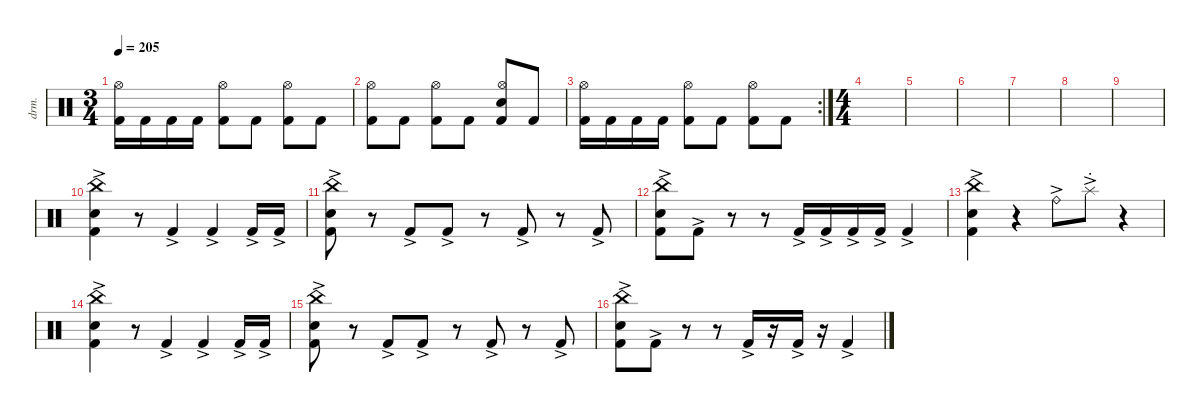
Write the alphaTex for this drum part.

\defaultSystemsLayout 4
\hideDynamics
\bracketExtendMode nobrackets
\otherSystemsTrackNameOrientation horizontal
\track ("Drumkit" "drm.") {instrument percussion}
\staff {score}
\articulation defaults
\ts (3 4)
\tempo 205
\clef neutral
\ks c
("Kick (hit) 2" "Hi-Hat (open)").16{dy mf} "Kick (hit) 2".16 "Kick (hit) 2".16 "Kick (hit) 2".16 ("Kick (hit) 2" "Hi-Hat (open)").8 "Kick (hit) 2".8 ("Kick (hit) 2" "Hi-Hat (open)").8 "Kick (hit) 2".8 |
("Kick (hit) 2" "Hi-Hat (open)").8 "Kick (hit) 2".8 ("Kick (hit) 2" "Hi-Hat (open)").8 "Kick (hit) 2".8 ("Kick (hit) 2" "Hi-Hat (open)" "Snare (hit) 2").8 "Kick (hit) 2".8 |
\rc 2
("Kick (hit) 2" "Hi-Hat (open)").16 "Kick (hit) 2".16 "Kick (hit) 2".16 "Kick (hit) 2".16 ("Kick (hit) 2" "Hi-Hat (open)").8 "Kick (hit) 2".8 ("Kick (hit) 2" "Hi-Hat (open)").8 "Kick (hit) 2".8 |
\ts (4 4)
\beaming (8 2 2 2 2)
|
|
|
|
|
|
("China (hit)"{ac} "Kick (hit) 2"{ac} "Snare (hit) 2"{ac}).4 r.8 "Kick (hit) 2"{ac}.4 "Kick (hit) 2"{ac}.4 "Kick (hit) 2"{ac}.16 "Kick (hit) 2"{ac}.16 |
("Kick (hit) 2"{ac} "China (hit)"{ac} "Snare (hit) 2"{ac}).8 r.8 "Kick (hit) 2"{ac}.8 "Kick (hit) 2"{ac}.8 r.8 "Kick (hit) 2"{ac}.8 r.8 "Kick (hit) 2"{ac}.8 |
("Kick (hit) 2"{ac} "China (hit)"{ac} "Snare (hit) 2"{ac}).8 "Kick (hit) 2"{ac}.8 r.8 r.8 "Kick (hit) 2"{ac}.16 "Kick (hit) 2"{ac}.16 "Kick (hit) 2"{ac}.16 "Kick (hit) 2"{ac}.16 "Kick (hit) 2"{ac}.4 |
("China (hit)"{ac} "Kick (hit) 2"{ac} "Snare (hit) 2"{ac}).4 r.4 "Ride (bell)"{ac}.8 "Splash (choke)"{ac}.8 r.4 |
("China (hit)"{ac} "Kick (hit) 2"{ac} "Snare (hit) 2"{ac}).4 r.8 "Kick (hit) 2"{ac}.4 "Kick (hit) 2"{ac}.4 "Kick (hit) 2"{ac}.16 "Kick (hit) 2"{ac}.16 |
("Kick (hit) 2"{ac} "China (hit)"{ac} "Snare (hit) 2"{ac}).8 r.8 "Kick (hit) 2"{ac}.8 "Kick (hit) 2"{ac}.8 r.8 "Kick (hit) 2"{ac}.8 r.8 "Kick (hit) 2"{ac}.8 |
("Kick (hit) 2"{ac} "China (hit)"{ac} "Snare (hit) 2"{ac}).8 "Kick (hit) 2"{ac}.8 r.8 r.8 "Kick (hit) 2"{ac}.16 r.16 "Kick (hit) 2"{ac}.16 r.16 "Kick (hit) 2"{ac}.4
